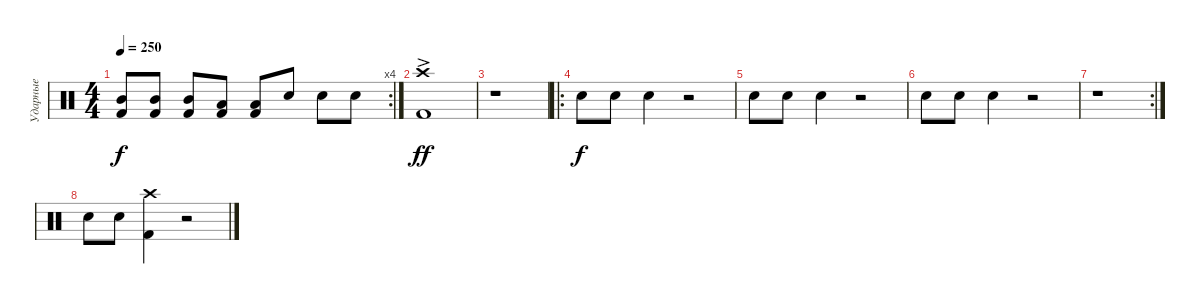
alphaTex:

\track ("Ударные" "Ударные") {instrument percussion}
\staff {score}
\articulation defaults
\rc 4
\ts (4 4)
\tempo 250
\clef neutral
\ks c
("Kick (hit) 2" "Mid Tom (hit)").8{dy f} ("Kick (hit) 2" "Mid Tom (hit)").8 ("Kick (hit) 2" "Mid Tom (hit)").8 ("Kick (hit) 2" "Low Tom (hit)").8 ("Kick (hit) 2" "Low Tom (hit)").8 "Snare (hit) 2".8 "Snare (hit) 2".8 "Snare (hit) 2".8 |
("Kick (hit) 2" "Crash high (hit)"{ac}).1{dy ff} |
r.1 |
\ro "Snare (hit) 2".8{dy f} "Snare (hit) 2".8 "Snare (hit) 2".4
r.2 |
"Snare (hit) 2".8 "Snare (hit) 2".8 "Snare (hit) 2".4 r.2 |
"Snare (hit) 2".8 "Snare (hit) 2".8 "Snare (hit) 2".4 r.2 |
\rc 2
r.1 |
"Snare (hit) 2".8 "Snare (hit) 2".8 ("Kick (hit) 2" "Crash high (hit)").4 r.2
